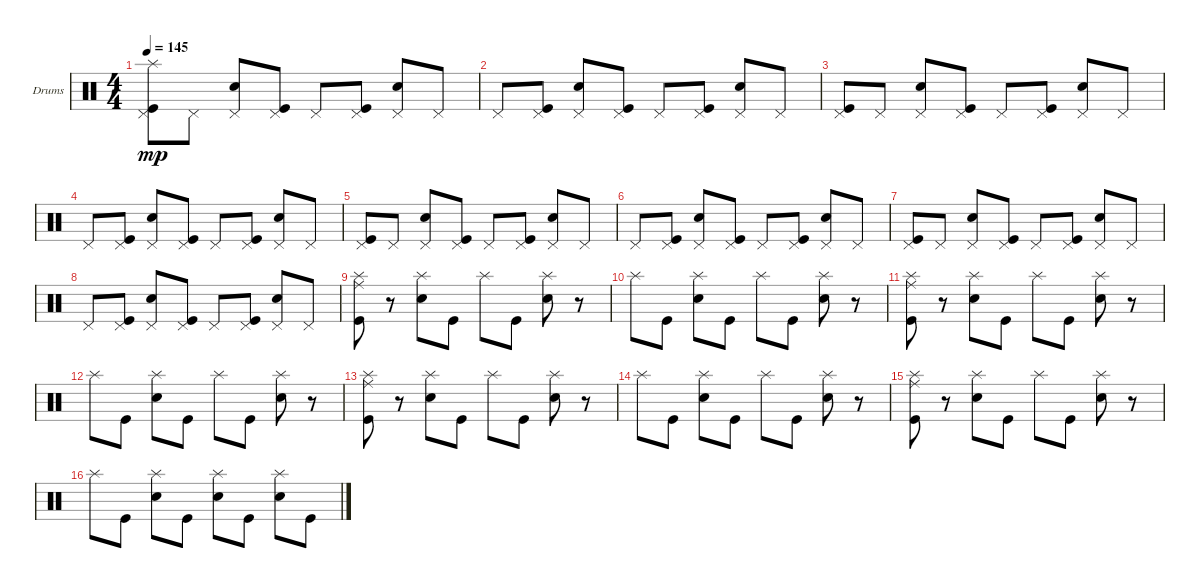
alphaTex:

\defaultSystemsLayout 4
\bracketExtendMode groupsimilarinstruments
\firstSystemTrackNameOrientation horizontal
\otherSystemsTrackNameOrientation horizontal
\track ("Drumkit" "Drums") {instrument percussion}
\staff {score}
\articulation defaults
\ts (4 4)
\tempo 145
\clef neutral
\ks c
("Pedal Hi-Hat (hit)" "Kick (hit)" "Splash (hit)").8{dy mp} "Pedal Hi-Hat (hit)".8 ("Pedal Hi-Hat (hit)" "Snare (hit) 2").8 ("Pedal Hi-Hat (hit)" "Kick (hit)").8 "Pedal Hi-Hat (hit)".8 ("Pedal Hi-Hat (hit)" "Kick (hit)").8 ("Pedal Hi-Hat (hit)" "Snare (hit) 2").8 "Pedal Hi-Hat (hit)".8 |
"Pedal Hi-Hat (hit)".8 ("Pedal Hi-Hat (hit)" "Kick (hit)").8 ("Pedal Hi-Hat (hit)" "Snare (hit) 2").8 ("Pedal Hi-Hat (hit)" "Kick (hit)").8 "Pedal Hi-Hat (hit)".8 ("Pedal Hi-Hat (hit)" "Kick (hit)").8 ("Pedal Hi-Hat (hit)" "Snare (hit) 2").8 "Pedal Hi-Hat (hit)".8 |
("Pedal Hi-Hat (hit)" "Kick (hit)").8 "Pedal Hi-Hat (hit)".8 ("Pedal Hi-Hat (hit)" "Snare (hit) 2").8 ("Pedal Hi-Hat (hit)" "Kick (hit)").8 "Pedal Hi-Hat (hit)".8 ("Pedal Hi-Hat (hit)" "Kick (hit)").8 ("Pedal Hi-Hat (hit)" "Snare (hit) 2").8 "Pedal Hi-Hat (hit)".8 |
"Pedal Hi-Hat (hit)".8 ("Pedal Hi-Hat (hit)" "Kick (hit)").8 ("Pedal Hi-Hat (hit)" "Snare (hit) 2").8 ("Pedal Hi-Hat (hit)" "Kick (hit)").8 "Pedal Hi-Hat (hit)".8 ("Pedal Hi-Hat (hit)" "Kick (hit)").8 ("Pedal Hi-Hat (hit)" "Snare (hit) 2").8 "Pedal Hi-Hat (hit)".8 |
("Pedal Hi-Hat (hit)" "Kick (hit)").8 "Pedal Hi-Hat (hit)".8 ("Pedal Hi-Hat (hit)" "Snare (hit) 2").8 ("Pedal Hi-Hat (hit)" "Kick (hit)").8 "Pedal Hi-Hat (hit)".8 ("Pedal Hi-Hat (hit)" "Kick (hit)").8 ("Pedal Hi-Hat (hit)" "Snare (hit) 2").8 "Pedal Hi-Hat (hit)".8 |
"Pedal Hi-Hat (hit)".8 ("Pedal Hi-Hat (hit)" "Kick (hit)").8 ("Pedal Hi-Hat (hit)" "Snare (hit) 2").8 ("Pedal Hi-Hat (hit)" "Kick (hit)").8 "Pedal Hi-Hat (hit)".8 ("Pedal Hi-Hat (hit)" "Kick (hit)").8 ("Pedal Hi-Hat (hit)" "Snare (hit) 2").8 "Pedal Hi-Hat (hit)".8 |
("Pedal Hi-Hat (hit)" "Kick (hit)").8 "Pedal Hi-Hat (hit)".8 ("Pedal Hi-Hat (hit)" "Snare (hit) 2").8 ("Pedal Hi-Hat (hit)" "Kick (hit)").8 "Pedal Hi-Hat (hit)".8 ("Pedal Hi-Hat (hit)" "Kick (hit)").8 ("Pedal Hi-Hat (hit)" "Snare (hit) 2").8 "Pedal Hi-Hat (hit)".8 |
"Pedal Hi-Hat (hit)".8 ("Pedal Hi-Hat (hit)" "Kick (hit)").8 ("Pedal Hi-Hat (hit)" "Snare (hit) 2").8 ("Pedal Hi-Hat (hit)" "Kick (hit)").8 "Pedal Hi-Hat (hit)".8 ("Pedal Hi-Hat (hit)" "Kick (hit)").8 ("Pedal Hi-Hat (hit)" "Snare (hit) 2").8 "Pedal Hi-Hat (hit)".8 |
("Kick (hit)" "Ride (middle)" "Splash (hit)").8 r.8 ("Snare (hit) 2" "Splash (hit)").8 "Kick (hit)".8 "Splash (hit)".8 "Kick (hit)".8 ("Snare (hit) 2" "Splash (hit)").8 r.8 |
"Splash (hit)".8 "Kick (hit)".8 ("Snare (hit) 2" "Splash (hit)").8 "Kick (hit)".8 "Splash (hit)".8 "Kick (hit)".8 ("Snare (hit) 2" "Splash (hit)").8 r.8 |
("Kick (hit)" "Ride (middle)" "Splash (hit)").8 r.8 ("Snare (hit) 2" "Splash (hit)").8 "Kick (hit)".8 "Splash (hit)".8 "Kick (hit)".8 ("Snare (hit) 2" "Splash (hit)").8 r.8 |
"Splash (hit)".8 "Kick (hit)".8 ("Snare (hit) 2" "Splash (hit)").8 "Kick (hit)".8 "Splash (hit)".8 "Kick (hit)".8 ("Snare (hit) 2" "Splash (hit)").8 r.8 |
("Kick (hit)" "Ride (middle)" "Splash (hit)").8 r.8 ("Snare (hit) 2" "Splash (hit)").8 "Kick (hit)".8 "Splash (hit)".8 "Kick (hit)".8 ("Snare (hit) 2" "Splash (hit)").8 r.8 |
"Splash (hit)".8 "Kick (hit)".8 ("Snare (hit) 2" "Splash (hit)").8 "Kick (hit)".8 "Splash (hit)".8 "Kick (hit)".8 ("Snare (hit) 2" "Splash (hit)").8 r.8 |
("Kick (hit)" "Ride (middle)" "Splash (hit)").8 r.8 ("Snare (hit) 2" "Splash (hit)").8 "Kick (hit)".8 "Splash (hit)".8 "Kick (hit)".8 ("Snare (hit) 2" "Splash (hit)").8 r.8 |
"Splash (hit)".8 "Kick (hit)".8 ("Snare (hit) 2" "Splash (hit)").8 "Kick (hit)".8 ("Splash (hit)" "Snare (hit) 2").8 "Kick (hit)".8 ("Snare (hit) 2" "Splash (hit)").8 "Kick (hit)".8
